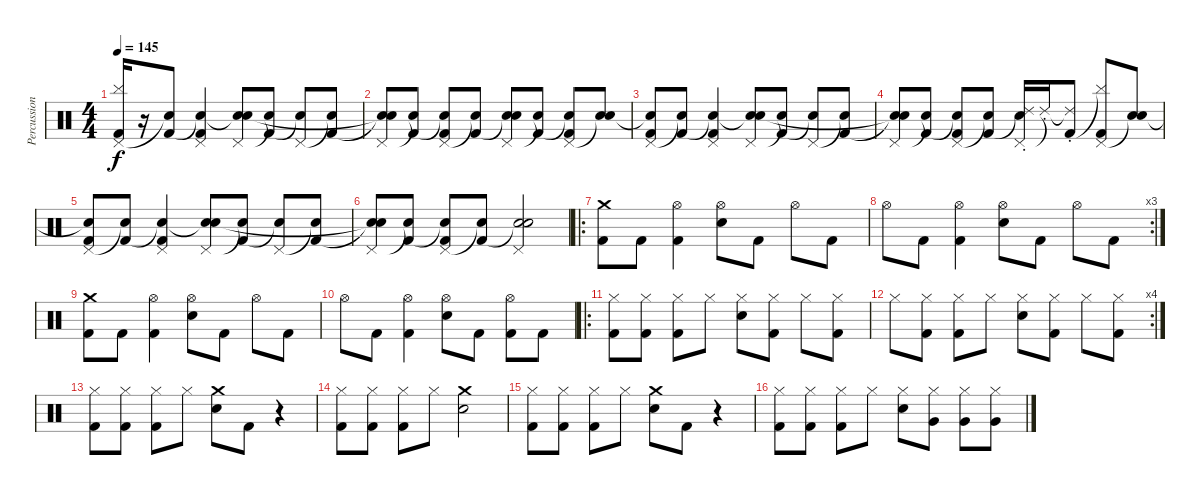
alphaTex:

\track ("Percussion" "Percussion") {instrument percussion}
\staff {score}
\articulation defaults
\ts (4 4)
\tempo 145
\clef neutral
\ks c
("Pedal Hi-Hat (hit)" "Cymbal (hit)" "Kick (hit) 2").16{dy f} r.16 ("Snare (hit)"{t} "Kick (hit) 2").8 ("Pedal Hi-Hat (hit)" "Snare (hit)"{t} "Kick (hit) 2").4 ("Pedal Hi-Hat (hit)" "Snare (hit)"{t} "Electric Snare (hit)").8 ("Snare (hit)"{t} "Kick (hit) 2").8 ("Pedal Hi-Hat (hit)" "Snare (hit)"{t}).8 ("Snare (hit)"{t} "Kick (hit) 2").8 |
("Pedal Hi-Hat (hit)" "Snare (hit)"{t} "Snare (hit)"{t}).8 ("Snare (hit)"{t} "Kick (hit) 2").8 ("Pedal Hi-Hat (hit)" "Snare (hit)"{t} "Kick (hit) 2").8 ("Snare (hit)"{t} "Kick (hit) 2").8 ("Pedal Hi-Hat (hit)" "Snare (hit)"{t} "Electric Snare (hit)").8 ("Snare (hit)"{t} "Kick (hit) 2").8 ("Pedal Hi-Hat (hit)" "Snare (hit)"{t} "Kick (hit) 2").8 ("Snare (hit)"{t} "Electric Snare (hit)").8 |
("Pedal Hi-Hat (hit)" "Snare (hit)"{t} "Kick (hit) 2").8 ("Snare (hit)"{t} "Kick (hit) 2").8 ("Pedal Hi-Hat (hit)" "Snare (hit)"{t} "Kick (hit) 2").4 ("Pedal Hi-Hat (hit)" "Snare (hit)"{t} "Electric Snare (hit)").8 ("Snare (hit)"{t} "Kick (hit) 2").8 ("Pedal Hi-Hat (hit)" "Snare (hit)"{t}).8 ("Snare (hit)"{t} "Kick (hit) 2").8 |
("Pedal Hi-Hat (hit)" "Snare (hit)"{t} "Snare (hit)"{t}).8 ("Snare (hit)"{t} "Kick (hit) 2").8 ("Pedal Hi-Hat (hit)" "Snare (hit)"{t} "Kick (hit) 2").8 ("Snare (hit)"{t} "Kick (hit) 2").8 ("Pedal Hi-Hat (hit)" "Ride (choke) 2"{t} "Electric Snare (hit)").16 "Ride (choke) 2"{t}.16 ("Ride (choke) 2"{t} "Kick (hit) 2").8 ("Pedal Hi-Hat (hit)" "Cymbal (hit)"{t} "Kick (hit) 2").8 ("Snare (hit)"{t} "Electric Snare (hit)").8 |
("Pedal Hi-Hat (hit)" "Snare (hit)"{t} "Kick (hit) 2").8 ("Snare (hit)"{t} "Kick (hit) 2").8 ("Pedal Hi-Hat (hit)" "Snare (hit)"{t} "Kick (hit) 2").4 ("Pedal Hi-Hat (hit)" "Snare (hit)"{t} "Electric Snare (hit)").8 ("Snare (hit)"{t} "Kick (hit) 2").8 ("Pedal Hi-Hat (hit)" "Snare (hit)"{t}).8 ("Snare (hit)"{t} "Kick (hit) 2").8 |
("Pedal Hi-Hat (hit)" "Snare (hit)"{t} "Snare (hit)"{t}).8 ("Snare (hit)"{t} "Kick (hit) 2").8 ("Pedal Hi-Hat (hit)" "Snare (hit)"{t} "Kick (hit) 2").8 ("Snare (hit)"{t} "Kick (hit) 2").8 ("Pedal Hi-Hat (hit)" "Snare (hit)"{t} "Electric Snare (hit)").2 |
\ro
("Crash medium (hit)" "Kick (hit) 2").8 "Kick (hit) 2".8 ("Hi-Hat (open)" "Kick (hit) 2").4 ("Hi-Hat (open)" "Electric Snare (hit)").8 "Kick (hit) 2".8 "Hi-Hat (open)".8 "Kick (hit) 2".8 |
\rc 3 "Hi-Hat (open)".8 "Kick (hit) 2".8
("Hi-Hat (open)" "Kick (hit) 2").4 ("Hi-Hat (open)" "Electric Snare (hit)").8 "Kick (hit) 2".8 "Hi-Hat (open)".8 "Kick (hit) 2".8 |
("Crash medium (hit)" "Kick (hit) 2").8 "Kick (hit) 2".8 ("Hi-Hat (open)" "Kick (hit) 2").4 ("Hi-Hat (open)" "Electric Snare (hit)").8 "Kick (hit) 2".8 "Hi-Hat (open)".8 "Kick (hit) 2".8 |
"Hi-Hat (open)".8 "Kick (hit) 2".8 ("Hi-Hat (open)" "Kick (hit) 2").4 ("Hi-Hat (open)" "Electric Snare (hit)").8 "Kick (hit) 2".8 ("Hi-Hat (open)" "Kick (hit) 2").8 "Kick (hit) 2".8 |
\ro
("Hi-Hat (closed)" "Kick (hit) 2").8 ("Hi-Hat (closed)" "Kick (hit) 2").8 ("Hi-Hat (closed)" "Kick (hit) 2").8 "Hi-Hat (closed)".8 ("Hi-Hat (closed)" "Electric Snare (hit)").8 ("Hi-Hat (closed)" "Kick (hit) 2").8 "Hi-Hat (closed)".8 ("Hi-Hat (closed)" "Kick (hit) 2").8 |
\rc 4 "Hi-Hat (closed)".8
("Hi-Hat (closed)" "Kick (hit) 2").8 ("Hi-Hat (closed)" "Kick (hit) 2").8 "Hi-Hat (closed)".8 ("Hi-Hat (closed)" "Electric Snare (hit)").8 ("Hi-Hat (closed)" "Kick (hit) 2").8 "Hi-Hat (closed)".8 ("Hi-Hat (closed)" "Kick (hit) 2").8 |
("Hi-Hat (closed)" "Kick (hit) 2").8 ("Hi-Hat (closed)" "Kick (hit) 2").8 ("Hi-Hat (closed)" "Kick (hit) 2").8 "Hi-Hat (closed)".8 ("Crash medium (hit)" "Electric Snare (hit)").8 "Kick (hit) 2".8 r.4 |
("Hi-Hat (closed)" "Kick (hit) 2").8 ("Hi-Hat (closed)" "Kick (hit) 2").8 ("Hi-Hat (closed)" "Kick (hit) 2").8 "Hi-Hat (closed)".8 ("Crash medium (hit)" "Electric Snare (hit)").2 |
("Hi-Hat (closed)" "Kick (hit) 2").8 ("Hi-Hat (closed)" "Kick (hit) 2").8 ("Hi-Hat (closed)" "Kick (hit) 2").8 "Hi-Hat (closed)".8 ("Crash medium (hit)" "Electric Snare (hit)").8 "Kick (hit) 2".8 r.4 |
("Hi-Hat (closed)" "Kick (hit) 2").8 ("Hi-Hat (closed)" "Kick (hit) 2").8 ("Hi-Hat (closed)" "Kick (hit) 2").8 "Hi-Hat (closed)".8 ("Hi-Hat (closed)" "Electric Snare (hit)").8 ("Hi-Hat (closed)" "Very Low Tom (hit)").8 ("Hi-Hat (closed)" "Very Low Tom (hit)").8 ("Hi-Hat (closed)" "Very Low Tom (hit)").8
